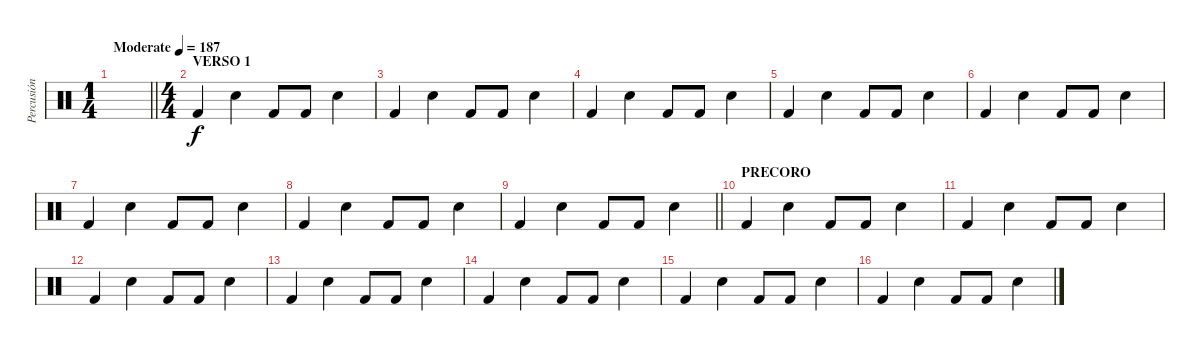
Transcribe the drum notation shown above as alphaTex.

\track ("Percusión" "Percusión") {instrument percussion}
\staff {score}
\articulation defaults
\ts (1 4)
\tempo (187 "Moderate")
\clef neutral
\barLineRight lightlight
\ks c
|
\ts (4 4)
\section ("" "VERSO 1")
"Kick (hit) 2".4 "Snare (hit) 2".4 "Kick (hit) 2".8 "Kick (hit) 2".8 "Snare (hit) 2".4 |
"Kick (hit) 2".4 "Snare (hit) 2".4 "Kick (hit) 2".8 "Kick (hit) 2".8 "Snare (hit) 2".4 |
"Kick (hit) 2".4 "Snare (hit) 2".4 "Kick (hit) 2".8 "Kick (hit) 2".8 "Snare (hit) 2".4 |
"Kick (hit) 2".4 "Snare (hit) 2".4 "Kick (hit) 2".8 "Kick (hit) 2".8 "Snare (hit) 2".4 |
"Kick (hit) 2".4 "Snare (hit) 2".4 "Kick (hit) 2".8 "Kick (hit) 2".8 "Snare (hit) 2".4 |
"Kick (hit) 2".4 "Snare (hit) 2".4 "Kick (hit) 2".8 "Kick (hit) 2".8 "Snare (hit) 2".4 |
"Kick (hit) 2".4 "Snare (hit) 2".4 "Kick (hit) 2".8 "Kick (hit) 2".8 "Snare (hit) 2".4 |
\barLineRight lightlight "Kick (hit) 2".4 "Snare (hit) 2".4 "Kick (hit) 2".8 "Kick (hit) 2".8 "Snare (hit) 2".4
|
\section ("" "PRECORO")
"Kick (hit) 2".4 "Snare (hit) 2".4 "Kick (hit) 2".8 "Kick (hit) 2".8 "Snare (hit) 2".4 |
"Kick (hit) 2".4 "Snare (hit) 2".4 "Kick (hit) 2".8 "Kick (hit) 2".8 "Snare (hit) 2".4 |
"Kick (hit) 2".4 "Snare (hit) 2".4 "Kick (hit) 2".8 "Kick (hit) 2".8 "Snare (hit) 2".4 |
"Kick (hit) 2".4 "Snare (hit) 2".4 "Kick (hit) 2".8 "Kick (hit) 2".8 "Snare (hit) 2".4 |
"Kick (hit) 2".4 "Snare (hit) 2".4 "Kick (hit) 2".8 "Kick (hit) 2".8 "Snare (hit) 2".4 |
"Kick (hit) 2".4 "Snare (hit) 2".4 "Kick (hit) 2".8 "Kick (hit) 2".8 "Snare (hit) 2".4 |
"Kick (hit) 2".4 "Snare (hit) 2".4 "Kick (hit) 2".8 "Kick (hit) 2".8 "Snare (hit) 2".4
